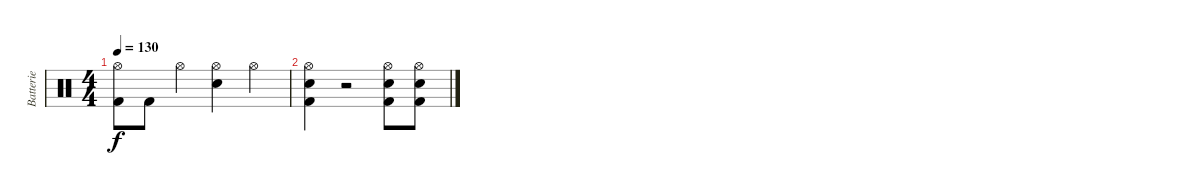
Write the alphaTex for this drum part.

\track ("Batterie" "Batterie") {instrument percussion}
\staff {score}
\articulation defaults
\ts (4 4)
\tempo 130
\clef neutral
\ks c
("Hi-Hat (open)" "Kick (hit) 2").8{dy f} "Kick (hit) 2".8 "Hi-Hat (open)".4 ("Hi-Hat (open)" "Electric Snare (hit)").4 "Hi-Hat (open)".4 |
("Hi-Hat (open)" "Electric Snare (hit)" "Kick (hit) 2").4 r.2 ("Hi-Hat (open)" "Electric Snare (hit)" "Kick (hit) 2").8 ("Hi-Hat (open)" "Electric Snare (hit)" "Kick (hit) 2").8
